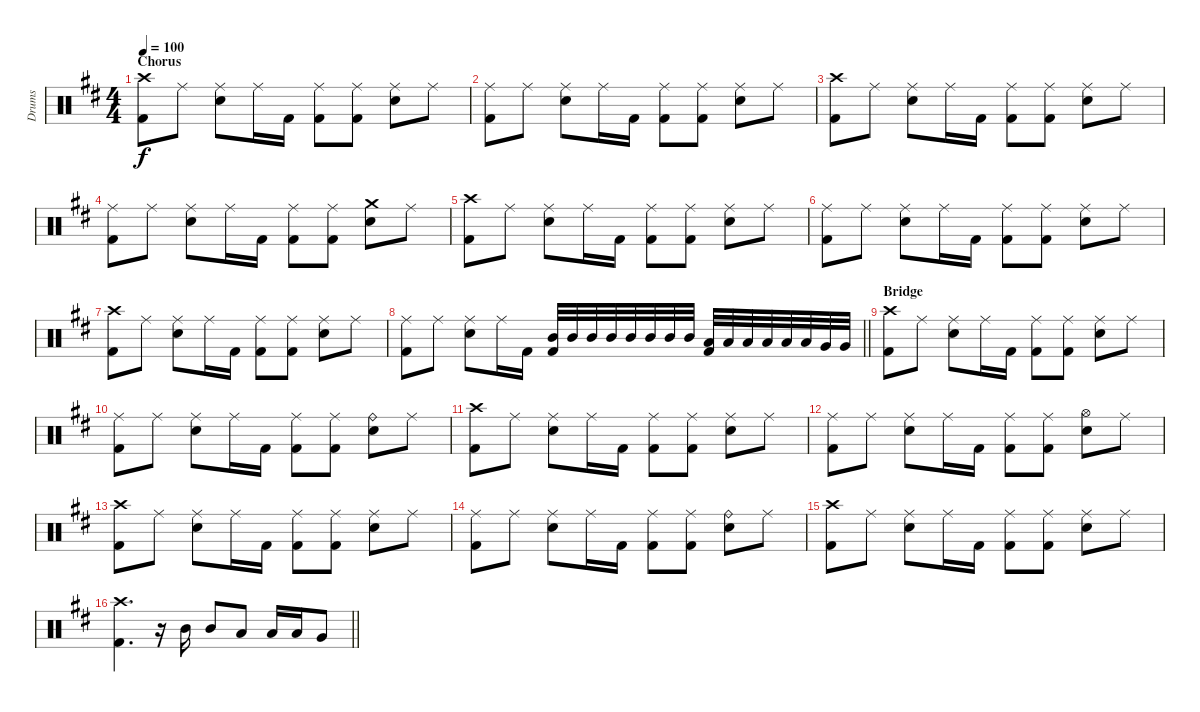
\track ("Drums" "Drums") {instrument percussion}
\staff {score}
\articulation defaults
\ts (4 4)
\section ("" "Chorus")
\tempo 100
\clef neutral
\ks d
("Crash high (hit)" "Kick (hit) 2").8{dy f} "Ride (middle)".8 ("Ride (middle)" "Snare (hit) 2").8 "Ride (middle)".16 "Kick (hit) 2".16 ("Ride (middle)" "Kick (hit) 2").8 ("Ride (middle)" "Kick (hit) 2").8 ("Ride (middle)" "Snare (hit) 2").8 "Ride (middle)".8 |
("Ride (middle)" "Kick (hit) 2").8 "Ride (middle)".8 ("Ride (middle)" "Snare (hit) 2").8 "Ride (middle)".16 "Kick (hit) 2".16 ("Ride (middle)" "Kick (hit) 2").8 ("Ride (middle)" "Kick (hit) 2").8 ("Ride (middle)" "Snare (hit) 2").8 "Ride (middle)".8 |
("Crash high (hit)" "Kick (hit) 2").8 "Ride (middle)".8 ("Ride (middle)" "Snare (hit) 2").8 "Ride (middle)".16 "Kick (hit) 2".16 ("Ride (middle)" "Kick (hit) 2").8 ("Ride (middle)" "Kick (hit) 2").8 ("Ride (middle)" "Snare (hit) 2").8 "Ride (middle)".8 |
("Ride (middle)" "Kick (hit) 2").8 "Ride (middle)".8 ("Ride (middle)" "Snare (hit) 2").8 "Ride (middle)".16 "Kick (hit) 2".16 ("Ride (middle)" "Kick (hit) 2").8 ("Ride (middle)" "Kick (hit) 2").8 ("Crash medium (hit)" "Snare (hit) 2").8 "Ride (middle)".8 |
("Crash high (hit)" "Kick (hit) 2").8 "Ride (middle)".8 ("Ride (middle)" "Snare (hit) 2").8 "Ride (middle)".16 "Kick (hit) 2".16 ("Ride (middle)" "Kick (hit) 2").8 ("Ride (middle)" "Kick (hit) 2").8 ("Ride (middle)" "Snare (hit) 2").8 "Ride (middle)".8 |
("Ride (middle)" "Kick (hit) 2").8 "Ride (middle)".8 ("Ride (middle)" "Snare (hit) 2").8 "Ride (middle)".16 "Kick (hit) 2".16 ("Ride (middle)" "Kick (hit) 2").8 ("Ride (middle)" "Kick (hit) 2").8 ("Ride (middle)" "Snare (hit) 2").8 "Ride (middle)".8 |
("Crash high (hit)" "Kick (hit) 2").8 "Ride (middle)".8 ("Ride (middle)" "Snare (hit) 2").8 "Ride (middle)".16 "Kick (hit) 2".16 ("Ride (middle)" "Kick (hit) 2").8 ("Ride (middle)" "Kick (hit) 2").8 ("Ride (middle)" "Snare (hit) 2").8 "Ride (middle)".8 |
\barLineRight lightlight
("Ride (middle)" "Kick (hit) 2").8 "Ride (middle)".8 ("Ride (middle)" "Snare (hit) 2").8 "Ride (middle)".16 "Kick (hit) 2".16 ("Kick (hit) 2" "Mid Tom (hit)").32 "Mid Tom (hit)".32 "Mid Tom (hit)".32 "Mid Tom (hit)".32 "Mid Tom (hit)".32 "Mid Tom (hit)".32 "Mid Tom (hit)".32 "Mid Tom (hit)".32 ("Kick (hit) 2" "Low Tom (hit)").32 "Low Tom (hit)".32 "Low Tom (hit)".32 "Low Tom (hit)".32 "Low Tom (hit)".32 "Low Tom (hit)".32 "Very Low Tom (hit)".32 "Very Low Tom (hit)".32 |
\section ("" "Bridge")
("Crash high (hit)" "Kick (hit) 2").8 "Ride (middle)".8 ("Ride (middle)" "Snare (hit) 2").8 "Ride (middle)".16 "Kick (hit) 2".16 ("Ride (middle)" "Kick (hit) 2").8 ("Ride (middle)" "Kick (hit) 2").8 ("Ride (middle)" "Snare (hit) 2").8 "Ride (middle)".8 |
("Ride (middle)" "Kick (hit) 2").8 "Ride (middle)".8 ("Ride (middle)" "Snare (hit) 2").8 "Ride (middle)".16 "Kick (hit) 2".16 ("Ride (middle)" "Kick (hit) 2").8 ("Ride (middle)" "Kick (hit) 2").8 ("Ride (bell)" "Snare (hit) 2").8 "Ride (middle)".8 |
("Crash high (hit)" "Kick (hit) 2").8 "Ride (middle)".8 ("Ride (middle)" "Snare (hit) 2").8 "Ride (middle)".16 "Kick (hit) 2".16 ("Ride (middle)" "Kick (hit) 2").8 ("Ride (middle)" "Kick (hit) 2").8 ("Ride (middle)" "Snare (hit) 2").8 "Ride (middle)".8 |
("Ride (middle)" "Kick (hit) 2").8 "Ride (middle)".8 ("Ride (middle)" "Snare (hit) 2").8 "Ride (middle)".16 "Kick (hit) 2".16 ("Ride (middle)" "Kick (hit) 2").8 ("Ride (middle)" "Kick (hit) 2").8 ("Hi-Hat (open)" "Snare (hit) 2").8 "Ride (middle)".8 |
("Crash high (hit)" "Kick (hit) 2").8 "Ride (middle)".8 ("Ride (middle)" "Snare (hit) 2").8 "Ride (middle)".16 "Kick (hit) 2".16 ("Ride (middle)" "Kick (hit) 2").8 ("Ride (middle)" "Kick (hit) 2").8 ("Ride (middle)" "Snare (hit) 2").8 "Ride (middle)".8 |
("Ride (middle)" "Kick (hit) 2").8 "Ride (middle)".8 ("Ride (middle)" "Snare (hit) 2").8 "Ride (middle)".16 "Kick (hit) 2".16 ("Ride (middle)" "Kick (hit) 2").8 ("Ride (middle)" "Kick (hit) 2").8 ("Ride (bell)" "Snare (hit) 2").8 "Ride (middle)".8 |
("Crash high (hit)" "Kick (hit) 2").8 "Ride (middle)".8 ("Ride (middle)" "Snare (hit) 2").8 "Ride (middle)".16 "Kick (hit) 2".16 ("Ride (middle)" "Kick (hit) 2").8 ("Ride (middle)" "Kick (hit) 2").8 ("Ride (middle)" "Snare (hit) 2").8 "Ride (middle)".8 |
\barLineRight lightlight
("Crash high (hit)" "Kick (hit) 2").4{d} r.16 "Mid Tom (hit)".16 "Mid Tom (hit)".8 "Low Tom (hit)".8 "Low Tom (hit)".16 "Low Tom (hit)".16 "Very Low Tom (hit)".8
